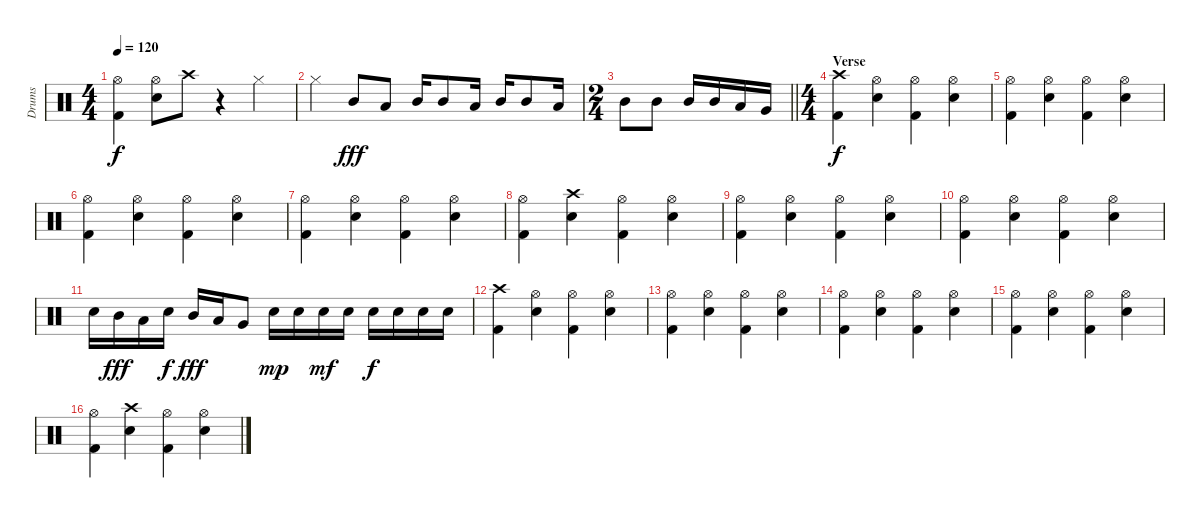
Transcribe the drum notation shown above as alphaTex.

\track ("Drums" "Drums") {instrument percussion}
\staff {score}
\articulation defaults
\ts (4 4)
\tempo 120
\clef neutral
\ks c
("Hi-Hat (open)" "Kick (hit) 2").4{dy f} ("Hi-Hat (open)" "Snare (hit) 2").8 "Crash high (hit)".8 r.4 "Hi-Hat (closed)".4 |
"Hi-Hat (closed)".4 "Mid Tom (hit)".8{dy fff} "Low Tom (hit)".8 "Mid Tom (hit)".16 "Mid Tom (hit)".8 "Low Tom (hit)".16 "Mid Tom (hit)".16 "Mid Tom (hit)".8 "Low Tom (hit)".16 |
\ts (2 4)
\barLineRight lightlight "Mid Tom (hit)".8 "Mid Tom (hit)".8 "Mid Tom (hit)".16 "Mid Tom (hit)".16 "Low Tom (hit)".16 "Very Low Tom (hit)".16
|
\ts (4 4)
\section ("" "Verse")
("Crash high (hit)" "Kick (hit) 2").4{dy f} ("Hi-Hat (open)" "Snare (hit) 2").4 ("Hi-Hat (open)" "Kick (hit) 2").4 ("Hi-Hat (open)" "Snare (hit) 2").4 |
("Hi-Hat (open)" "Kick (hit) 2").4 ("Hi-Hat (open)" "Snare (hit) 2").4 ("Hi-Hat (open)" "Kick (hit) 2").4 ("Hi-Hat (open)" "Snare (hit) 2").4 |
("Hi-Hat (open)" "Kick (hit) 2").4 ("Hi-Hat (open)" "Snare (hit) 2").4 ("Hi-Hat (open)" "Kick (hit) 2").4 ("Hi-Hat (open)" "Snare (hit) 2").4 |
("Hi-Hat (open)" "Kick (hit) 2").4 ("Hi-Hat (open)" "Snare (hit) 2").4 ("Hi-Hat (open)" "Kick (hit) 2").4 ("Hi-Hat (open)" "Snare (hit) 2").4 |
("Hi-Hat (open)" "Kick (hit) 2").4 ("Crash high (hit)" "Snare (hit) 2").4 ("Hi-Hat (open)" "Kick (hit) 2").4 ("Hi-Hat (open)" "Snare (hit) 2").4 |
("Hi-Hat (open)" "Kick (hit) 2").4 ("Hi-Hat (open)" "Snare (hit) 2").4 ("Hi-Hat (open)" "Kick (hit) 2").4 ("Hi-Hat (open)" "Snare (hit) 2").4 |
("Hi-Hat (open)" "Kick (hit) 2").4 ("Hi-Hat (open)" "Snare (hit) 2").4 ("Hi-Hat (open)" "Kick (hit) 2").4 ("Hi-Hat (open)" "Snare (hit) 2").4 |
"Snare (hit) 2".16 "Mid Tom (hit)".16{dy fff} "Low Tom (hit)".16 "Snare (hit) 2".16{dy f} "Mid Tom (hit)".16{dy fff} "Low Tom (hit)".16 "Very Low Tom (hit)".8 "Snare (hit) 2".16{dy mp} "Snare (hit) 2".16 "Snare (hit) 2".16{dy mf} "Snare (hit) 2".16 "Snare (hit) 2".16{dy f} "Snare (hit) 2".16 "Snare (hit) 2".16 "Snare (hit) 2".16 |
("Crash high (hit)" "Kick (hit) 2").4 ("Hi-Hat (open)" "Snare (hit) 2").4 ("Hi-Hat (open)" "Kick (hit) 2").4 ("Hi-Hat (open)" "Snare (hit) 2").4 |
("Hi-Hat (open)" "Kick (hit) 2").4 ("Hi-Hat (open)" "Snare (hit) 2").4 ("Hi-Hat (open)" "Kick (hit) 2").4 ("Hi-Hat (open)" "Snare (hit) 2").4 |
("Hi-Hat (open)" "Kick (hit) 2").4 ("Hi-Hat (open)" "Snare (hit) 2").4 ("Hi-Hat (open)" "Kick (hit) 2").4 ("Hi-Hat (open)" "Snare (hit) 2").4 |
("Hi-Hat (open)" "Kick (hit) 2").4 ("Hi-Hat (open)" "Snare (hit) 2").4 ("Hi-Hat (open)" "Kick (hit) 2").4 ("Hi-Hat (open)" "Snare (hit) 2").4 |
("Hi-Hat (open)" "Kick (hit) 2").4 ("Crash high (hit)" "Snare (hit) 2").4 ("Hi-Hat (open)" "Kick (hit) 2").4 ("Hi-Hat (open)" "Snare (hit) 2").4
